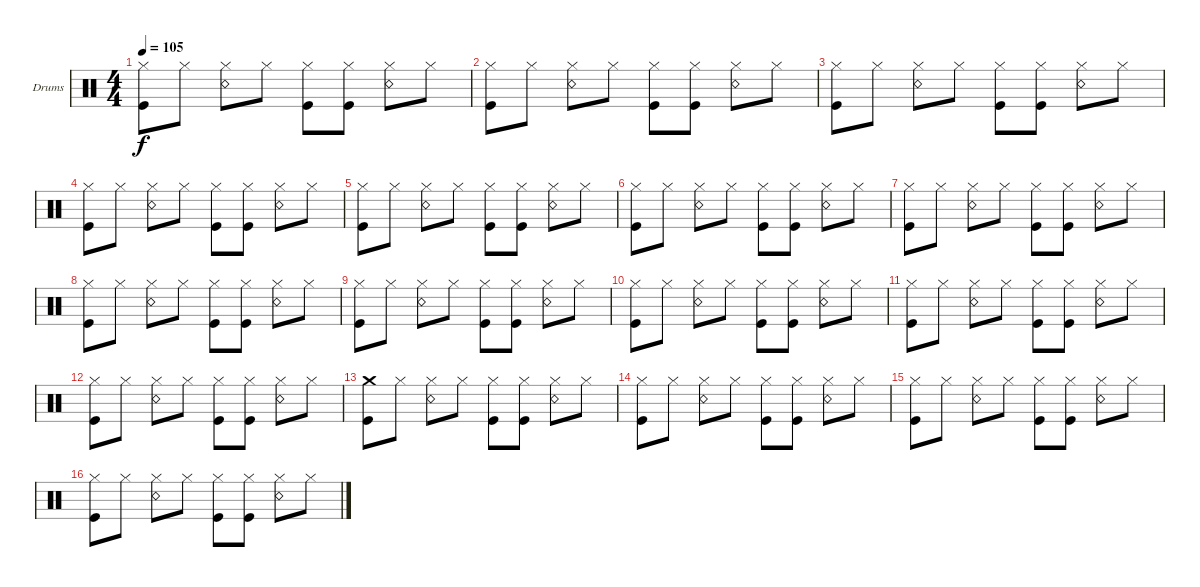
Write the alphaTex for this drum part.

\defaultSystemsLayout 4
\bracketExtendMode groupsimilarinstruments
\firstSystemTrackNameOrientation horizontal
\otherSystemsTrackNameOrientation horizontal
\track ("Drumkit" "Drums") {instrument percussion}
\staff {score}
\articulation defaults
\ts (4 4)
\tempo 105
\clef neutral
\scale
0.333333
\ks c
("Hi-Hat (closed)" "Kick (hit)").8{dy f} "Hi-Hat (closed)".8 ("Hi-Hat (closed)" "Snare (rim shot)").8 "Hi-Hat (closed)".8 ("Hi-Hat (closed)" "Kick (hit)").8 ("Hi-Hat (closed)" "Kick (hit)").8 ("Hi-Hat (closed)" "Snare (rim shot)").8 "Hi-Hat (closed)".8 |
\scale
0.333333 ("Hi-Hat (closed)" "Kick (hit)").8 "Hi-Hat (closed)".8 ("Hi-Hat (closed)" "Snare (rim shot)").8 "Hi-Hat (closed)".8 ("Hi-Hat (closed)" "Kick (hit)").8 ("Hi-Hat (closed)" "Kick (hit)").8 ("Hi-Hat (closed)" "Snare (rim shot)").8 "Hi-Hat (closed)".8 |
\scale
0.333333 ("Hi-Hat (closed)" "Kick (hit)").8 "Hi-Hat (closed)".8 ("Hi-Hat (closed)" "Snare (rim shot)").8 "Hi-Hat (closed)".8 ("Hi-Hat (closed)" "Kick (hit)").8 ("Hi-Hat (closed)" "Kick (hit)").8 ("Hi-Hat (closed)" "Snare (rim shot)").8 "Hi-Hat (closed)".8 |
\scale
0.333333 ("Hi-Hat (closed)" "Kick (hit)").8 "Hi-Hat (closed)".8 ("Hi-Hat (closed)" "Snare (rim shot)").8 "Hi-Hat (closed)".8 ("Hi-Hat (closed)" "Kick (hit)").8 ("Hi-Hat (closed)" "Kick (hit)").8 ("Hi-Hat (closed)" "Snare (rim shot)").8 "Hi-Hat (closed)".8 |
\scale
0.333333 ("Hi-Hat (closed)" "Kick (hit)").8 "Hi-Hat (closed)".8 ("Hi-Hat (closed)" "Snare (rim shot)").8 "Hi-Hat (closed)".8 ("Hi-Hat (closed)" "Kick (hit)").8 ("Hi-Hat (closed)" "Kick (hit)").8 ("Hi-Hat (closed)" "Snare (rim shot)").8 "Hi-Hat (closed)".8 |
\scale
0.333333 ("Hi-Hat (closed)" "Kick (hit)").8 "Hi-Hat (closed)".8 ("Hi-Hat (closed)" "Snare (rim shot)").8 "Hi-Hat (closed)".8 ("Hi-Hat (closed)" "Kick (hit)").8 ("Hi-Hat (closed)" "Kick (hit)").8 ("Hi-Hat (closed)" "Snare (rim shot)").8 "Hi-Hat (closed)".8 |
\scale
0.333333 ("Hi-Hat (closed)" "Kick (hit)").8 "Hi-Hat (closed)".8 ("Hi-Hat (closed)" "Snare (rim shot)").8 "Hi-Hat (closed)".8 ("Hi-Hat (closed)" "Kick (hit)").8 ("Hi-Hat (closed)" "Kick (hit)").8 ("Hi-Hat (closed)" "Snare (rim shot)").8 "Hi-Hat (closed)".8 |
\scale
0.333333 ("Hi-Hat (closed)" "Kick (hit)").8 "Hi-Hat (closed)".8 ("Hi-Hat (closed)" "Snare (rim shot)").8 "Hi-Hat (closed)".8 ("Hi-Hat (closed)" "Kick (hit)").8 ("Hi-Hat (closed)" "Kick (hit)").8 ("Hi-Hat (closed)" "Snare (rim shot)").8 "Hi-Hat (closed)".8 |
\scale
0.333333 ("Hi-Hat (closed)" "Kick (hit)").8 "Hi-Hat (closed)".8 ("Hi-Hat (closed)" "Snare (rim shot)").8 "Hi-Hat (closed)".8 ("Hi-Hat (closed)" "Kick (hit)").8 ("Hi-Hat (closed)" "Kick (hit)").8 ("Hi-Hat (closed)" "Snare (rim shot)").8 "Hi-Hat (closed)".8 |
\scale
0.333333 ("Hi-Hat (closed)" "Kick (hit)").8 "Hi-Hat (closed)".8 ("Hi-Hat (closed)" "Snare (rim shot)").8 "Hi-Hat (closed)".8 ("Hi-Hat (closed)" "Kick (hit)").8 ("Hi-Hat (closed)" "Kick (hit)").8 ("Hi-Hat (closed)" "Snare (rim shot)").8 "Hi-Hat (closed)".8 |
\scale
0.333333 ("Hi-Hat (closed)" "Kick (hit)").8 "Hi-Hat (closed)".8 ("Hi-Hat (closed)" "Snare (rim shot)").8 "Hi-Hat (closed)".8 ("Hi-Hat (closed)" "Kick (hit)").8 ("Hi-Hat (closed)" "Kick (hit)").8 ("Hi-Hat (closed)" "Snare (rim shot)").8 "Hi-Hat (closed)".8 |
\scale
0.333333 ("Hi-Hat (closed)" "Kick (hit)").8 "Hi-Hat (closed)".8 ("Hi-Hat (closed)" "Snare (rim shot)").8 "Hi-Hat (closed)".8 ("Hi-Hat (closed)" "Kick (hit)").8 ("Hi-Hat (closed)" "Kick (hit)").8 ("Hi-Hat (closed)" "Snare (rim shot)").8 "Hi-Hat (closed)".8 |
\scale
0.333333 ("Kick (hit)" "Crash medium (hit)").8 "Hi-Hat (closed)".8 ("Hi-Hat (closed)" "Snare (rim shot)").8 "Hi-Hat (closed)".8 ("Hi-Hat (closed)" "Kick (hit)").8 ("Hi-Hat (closed)" "Kick (hit)").8 ("Hi-Hat (closed)" "Snare (rim shot)").8 "Hi-Hat (closed)".8 |
\scale
0.333333 ("Hi-Hat (closed)" "Kick (hit)").8 "Hi-Hat (closed)".8 ("Hi-Hat (closed)" "Snare (rim shot)").8 "Hi-Hat (closed)".8 ("Hi-Hat (closed)" "Kick (hit)").8 ("Hi-Hat (closed)" "Kick (hit)").8 ("Hi-Hat (closed)" "Snare (rim shot)").8 "Hi-Hat (closed)".8 |
\scale
0.333333 ("Hi-Hat (closed)" "Kick (hit)").8 "Hi-Hat (closed)".8 ("Hi-Hat (closed)" "Snare (rim shot)").8 "Hi-Hat (closed)".8 ("Hi-Hat (closed)" "Kick (hit)").8 ("Hi-Hat (closed)" "Kick (hit)").8 ("Hi-Hat (closed)" "Snare (rim shot)").8 "Hi-Hat (closed)".8 |
\scale
0.333333 ("Hi-Hat (closed)" "Kick (hit)").8 "Hi-Hat (closed)".8 ("Hi-Hat (closed)" "Snare (rim shot)").8 "Hi-Hat (closed)".8 ("Hi-Hat (closed)" "Kick (hit)").8 ("Hi-Hat (closed)" "Kick (hit)").8 ("Hi-Hat (closed)" "Snare (rim shot)").8 "Hi-Hat (closed)".8
